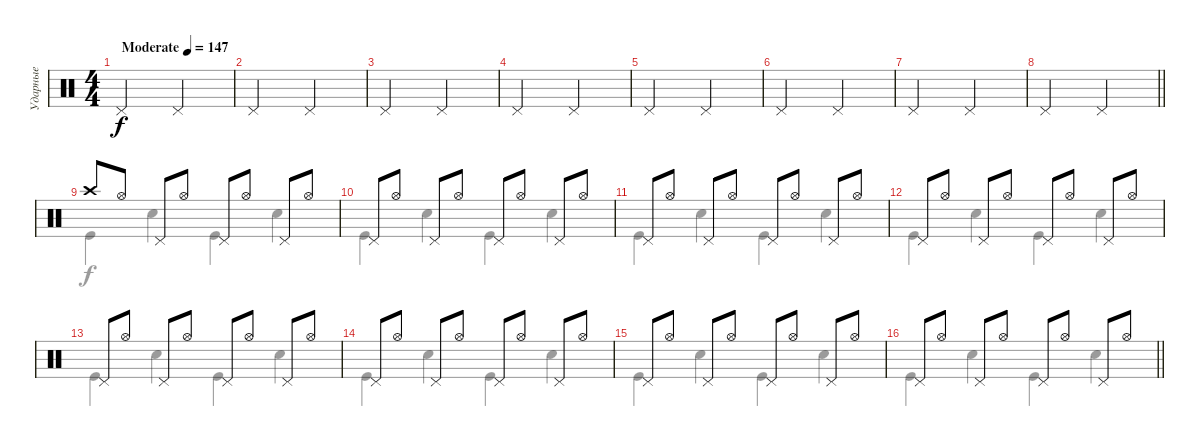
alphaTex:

\track ("Ударные" "Ударные") {instrument percussion}
\staff {score}
\articulation defaults
\voice
\ts (4 4)
\tempo (147 "Moderate")
\clef neutral
\ks c "Pedal Hi-Hat (hit)".2{dy f} "Pedal Hi-Hat (hit)".2
|
"Pedal Hi-Hat (hit)".2 "Pedal Hi-Hat (hit)".2 |
"Pedal Hi-Hat (hit)".2 "Pedal Hi-Hat (hit)".2 |
"Pedal Hi-Hat (hit)".2 "Pedal Hi-Hat (hit)".2 |
"Pedal Hi-Hat (hit)".2 "Pedal Hi-Hat (hit)".2 |
"Pedal Hi-Hat (hit)".2 "Pedal Hi-Hat (hit)".2 |
"Pedal Hi-Hat (hit)".2 "Pedal Hi-Hat (hit)".2 |
\barLineRight lightlight "Pedal Hi-Hat (hit)".2 "Pedal Hi-Hat (hit)".2
|
"Crash high (hit)".8 "Hi-Hat (open)".8 "Pedal Hi-Hat (hit)".8 "Hi-Hat (open)".8 "Pedal Hi-Hat (hit)".8 "Hi-Hat (open)".8 "Pedal Hi-Hat (hit)".8 "Hi-Hat (open)".8 |
"Pedal Hi-Hat (hit)".8 "Hi-Hat (open)".8 "Pedal Hi-Hat (hit)".8 "Hi-Hat (open)".8 "Pedal Hi-Hat (hit)".8 "Hi-Hat (open)".8 "Pedal Hi-Hat (hit)".8 "Hi-Hat (open)".8 |
"Pedal Hi-Hat (hit)".8 "Hi-Hat (open)".8 "Pedal Hi-Hat (hit)".8 "Hi-Hat (open)".8 "Pedal Hi-Hat (hit)".8 "Hi-Hat (open)".8 "Pedal Hi-Hat (hit)".8 "Hi-Hat (open)".8 |
"Pedal Hi-Hat (hit)".8 "Hi-Hat (open)".8 "Pedal Hi-Hat (hit)".8 "Hi-Hat (open)".8 "Pedal Hi-Hat (hit)".8 "Hi-Hat (open)".8 "Pedal Hi-Hat (hit)".8 "Hi-Hat (open)".8 |
"Pedal Hi-Hat (hit)".8 "Hi-Hat (open)".8 "Pedal Hi-Hat (hit)".8 "Hi-Hat (open)".8 "Pedal Hi-Hat (hit)".8 "Hi-Hat (open)".8 "Pedal Hi-Hat (hit)".8 "Hi-Hat (open)".8 |
"Pedal Hi-Hat (hit)".8 "Hi-Hat (open)".8 "Pedal Hi-Hat (hit)".8 "Hi-Hat (open)".8 "Pedal Hi-Hat (hit)".8 "Hi-Hat (open)".8 "Pedal Hi-Hat (hit)".8 "Hi-Hat (open)".8 |
"Pedal Hi-Hat (hit)".8 "Hi-Hat (open)".8 "Pedal Hi-Hat (hit)".8 "Hi-Hat (open)".8 "Pedal Hi-Hat (hit)".8 "Hi-Hat (open)".8 "Pedal Hi-Hat (hit)".8 "Hi-Hat (open)".8 |
\barLineRight lightlight "Pedal Hi-Hat (hit)".8 "Hi-Hat (open)".8 "Pedal Hi-Hat (hit)".8 "Hi-Hat (open)".8 "Pedal Hi-Hat (hit)".8 "Hi-Hat (open)".8 "Pedal Hi-Hat (hit)".8 "Hi-Hat (open)".8
\voice
\clef neutral
\ottava regular
\simile none
\ks c
|
|
|
|
|
|
|
\barLineRight lightlight
|
"Kick (hit)".4 "Snare (hit) 2".4 "Kick (hit)".4 "Snare (hit) 2".4 |
"Kick (hit)".4 "Snare (hit) 2".4 "Kick (hit)".4 "Snare (hit) 2".4 |
"Kick (hit)".4 "Snare (hit) 2".4 "Kick (hit)".4 "Snare (hit) 2".4 |
"Kick (hit)".4 "Snare (hit) 2".4 "Kick (hit)".4 "Snare (hit) 2".4 |
"Kick (hit)".4 "Snare (hit) 2".4 "Kick (hit)".4 "Snare (hit) 2".4 |
"Kick (hit)".4 "Snare (hit) 2".4 "Kick (hit)".4 "Snare (hit) 2".4 |
"Kick (hit)".4 "Snare (hit) 2".4 "Kick (hit)".4 "Snare (hit) 2".4 |
\barLineRight lightlight "Kick (hit)".4 "Snare (hit) 2".4 "Kick (hit)".4 "Snare (hit) 2".4
